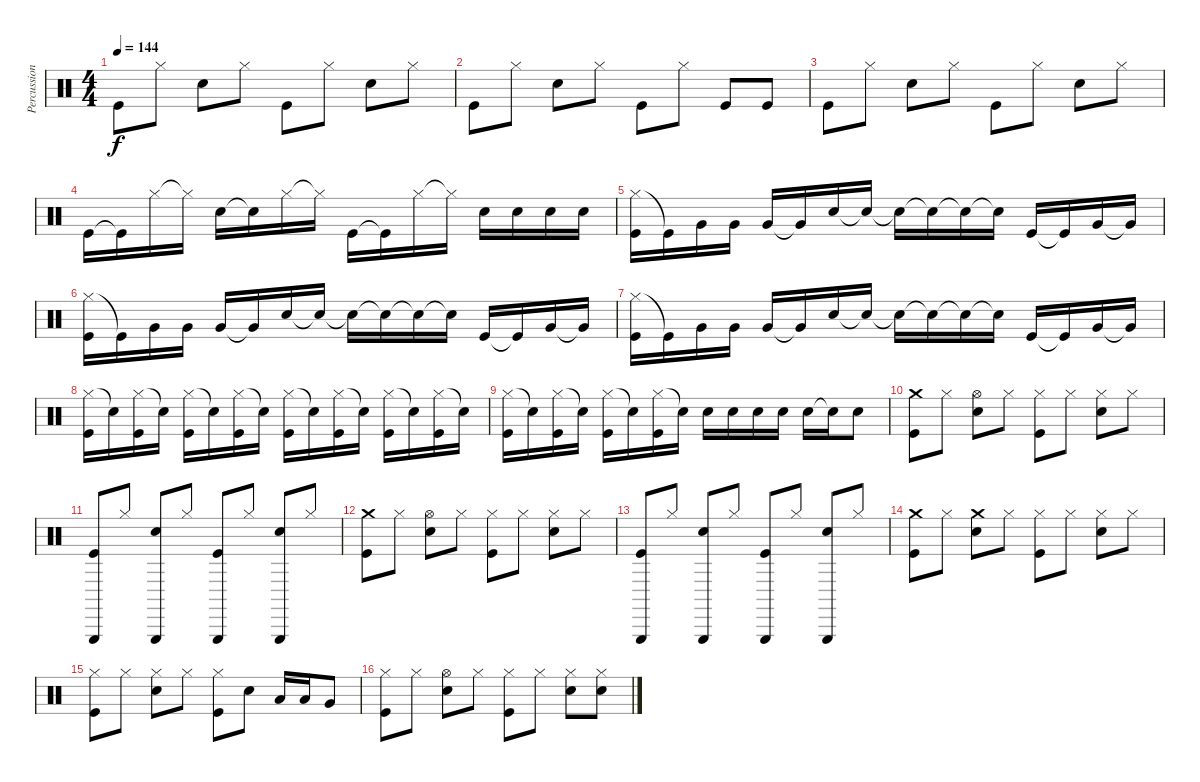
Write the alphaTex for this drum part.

\track ("Percussion" "Percussion") {instrument percussion}
\staff {score}
\articulation defaults
\ts (4 4)
\tempo 144
\clef neutral
\ks c "Kick (hit)".8{dy f} "Hi-Hat (closed)".8 "Snare (hit) 2".8 "Hi-Hat (closed)".8 "Kick (hit)".8 "Hi-Hat (closed)".8 "Snare (hit) 2".8 "Hi-Hat (closed)".8
|
"Kick (hit)".8 "Hi-Hat (closed)".8 "Snare (hit) 2".8 "Hi-Hat (closed)".8 "Kick (hit)".8 "Hi-Hat (closed)".8 "Kick (hit)".8 "Kick (hit)".8 |
"Kick (hit)".8 "Hi-Hat (closed)".8 "Snare (hit) 2".8 "Hi-Hat (closed)".8 "Kick (hit)".8 "Hi-Hat (closed)".8 "Snare (hit) 2".8 "Hi-Hat (closed)".8 |
"Kick (hit)".16 "Kick (hit)"{t}.16 "Hi-Hat (closed)".16 "Hi-Hat (closed)"{t}.16 "Snare (hit) 2".16 "Snare (hit) 2"{t}.16 "Hi-Hat (closed)".16 "Hi-Hat (closed)"{t}.16 "Kick (hit)".16 "Kick (hit)"{t}.16 "Hi-Hat (closed)".16 "Hi-Hat (closed)"{t}.16 "Snare (hit) 2".16 "Snare (hit) 2".16 "Snare (hit) 2".16 "Snare (hit) 2".16 |
("Hi-Hat (closed)" "Kick (hit)").16 "Kick (hit)"{t}.16 "Very Low Tom (hit)".16 "Very Low Tom (hit)".16 "Very Low Tom (hit)".16 "Very Low Tom (hit)"{t}.16 "Snare (hit) 2".16 "Snare (hit)"{t}.16 "Snare (hit)"{t}.16 "Snare (hit)"{t}.16 "Snare (hit)"{t}.16 "Snare (hit)"{t}.16 "Kick (hit)".16 "Kick (hit)"{t}.16 "Very Low Tom (hit)".16 "Very Low Tom (hit)"{t}.16 |
("Hi-Hat (closed)" "Kick (hit)").16 "Kick (hit)"{t}.16 "Very Low Tom (hit)".16 "Very Low Tom (hit)".16 "Very Low Tom (hit)".16 "Very Low Tom (hit)"{t}.16 "Snare (hit) 2".16 "Snare (hit)"{t}.16 "Snare (hit)"{t}.16 "Snare (hit)"{t}.16 "Snare (hit)"{t}.16 "Snare (hit)"{t}.16 "Kick (hit)".16 "Kick (hit)"{t}.16 "Very Low Tom (hit)".16 "Very Low Tom (hit)"{t}.16 |
("Hi-Hat (closed)" "Kick (hit)").16 "Kick (hit)"{t}.16 "Very Low Tom (hit)".16 "Very Low Tom (hit)".16 "Very Low Tom (hit)".16 "Very Low Tom (hit)"{t}.16 "Snare (hit) 2".16 "Snare (hit)"{t}.16 "Snare (hit)"{t}.16 "Snare (hit)"{t}.16 "Snare (hit)"{t}.16 "Snare (hit)"{t}.16 "Kick (hit)".16 "Kick (hit)"{t}.16 "Very Low Tom (hit)".16 "Very Low Tom (hit)"{t}.16 |
("Hi-Hat (closed)" "Kick (hit)").16 "Snare (hit)"{t}.16 ("Hi-Hat (closed)" "Kick (hit)").16 "Snare (hit)"{t}.16 ("Hi-Hat (closed)" "Kick (hit)").16 "Snare (hit)"{t}.16 ("Hi-Hat (closed)" "Kick (hit)").16 "Snare (hit)"{t}.16 ("Hi-Hat (closed)" "Kick (hit)").16 "Snare (hit)"{t}.16 ("Hi-Hat (closed)" "Kick (hit)").16 "Snare (hit)"{t}.16 ("Hi-Hat (closed)" "Kick (hit)").16 "Snare (hit)"{t}.16 ("Hi-Hat (closed)" "Kick (hit)").16 "Snare (hit)"{t}.16 |
("Hi-Hat (closed)" "Kick (hit)").16 "Snare (hit)"{t}.16 ("Hi-Hat (closed)" "Kick (hit)").16 "Snare (hit)"{t}.16 ("Hi-Hat (closed)" "Kick (hit)").16 "Snare (hit)"{t}.16 ("Hi-Hat (closed)" "Kick (hit)").16 "Snare (hit)"{t}.16 "Snare (hit) 2".16 "Snare (hit) 2".16 "Snare (hit) 2".16 "Snare (hit) 2".16 "Snare (hit) 2".16 "Snare (hit)"{t}.16 "Snare (hit) 2".8 |
("Crash medium (hit)" "Kick (hit)").8 "Hi-Hat (closed)".8 ("Hi-Hat (open)" "Snare (hit) 2").8 "Hi-Hat (closed)".8 ("Hi-Hat (closed)" "Kick (hit)").8 "Hi-Hat (closed)".8 ("Hi-Hat (closed)" "Snare (hit) 2").8 "Hi-Hat (closed)".8 |
("Triangle (hit)" "Kick (hit)").8 "Hi-Hat (closed)".8 ("Triangle (hit)" "Snare (hit) 2").8 "Hi-Hat (closed)".8 ("Triangle (hit)" "Kick (hit)").8 "Hi-Hat (closed)".8 ("Triangle (hit)" "Snare (hit) 2").8 "Hi-Hat (closed)".8 |
("Crash medium (hit)" "Kick (hit)").8 "Hi-Hat (closed)".8 ("Hi-Hat (open)" "Snare (hit) 2").8 "Hi-Hat (closed)".8 ("Hi-Hat (closed)" "Kick (hit)").8 "Hi-Hat (closed)".8 ("Hi-Hat (closed)" "Snare (hit) 2").8 "Hi-Hat (closed)".8 |
("Triangle (hit)" "Kick (hit)").8 "Hi-Hat (closed)".8 ("Triangle (hit)" "Snare (hit) 2").8 "Hi-Hat (closed)".8 ("Triangle (hit)" "Kick (hit)").8 "Hi-Hat (closed)".8 ("Triangle (hit)" "Snare (hit) 2").8 "Hi-Hat (closed)".8 |
("Crash medium (hit)" "Kick (hit)").8 "Hi-Hat (closed)".8 ("Crash medium (hit)" "Snare (hit) 2").8 "Hi-Hat (closed)".8 ("Hi-Hat (closed)" "Kick (hit)").8 "Hi-Hat (closed)".8 ("Hi-Hat (closed)" "Snare (hit) 2").8 "Hi-Hat (closed)".8 |
("Hi-Hat (closed)" "Kick (hit)").8 "Hi-Hat (closed)".8 ("Hi-Hat (closed)" "Snare (hit) 2").8 "Hi-Hat (closed)".8 ("Hi-Hat (closed)" "Kick (hit)").8 "Snare (hit) 2".8 "Low Floor Tom (hit)".16 "Low Floor Tom (hit)".16 "Very Low Tom (hit)".8 |
("Hi-Hat (closed)" "Kick (hit)").8 "Hi-Hat (closed)".8 ("Hi-Hat (open)" "Snare (hit) 2").8 "Hi-Hat (closed)".8 ("Hi-Hat (closed)" "Kick (hit)").8 "Hi-Hat (closed)".8 ("Hi-Hat (closed)" "Snare (hit) 2").8 ("Hi-Hat (closed)" "Snare (hit) 2").8
